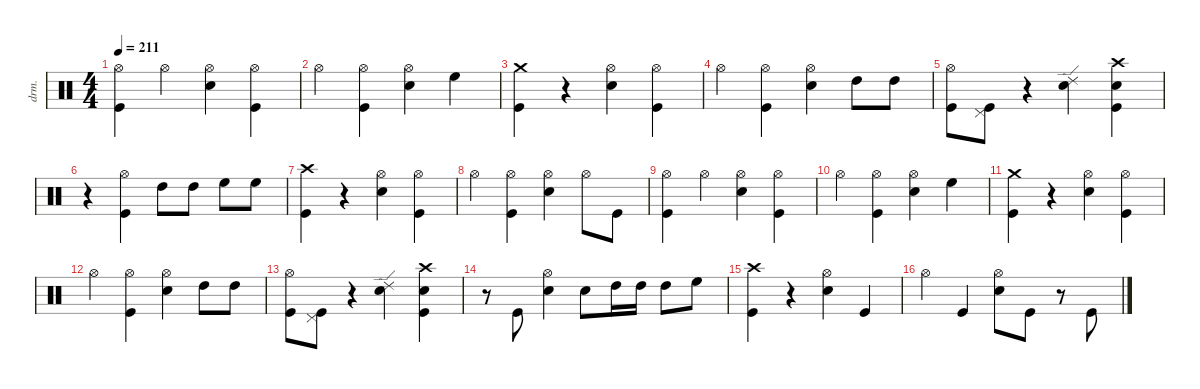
\defaultSystemsLayout 4
\hideDynamics
\bracketExtendMode nobrackets
\otherSystemsTrackNameOrientation horizontal
\track ("Drums" "drm.") {instrument percussion}
\staff {score}
\articulation defaults
\ts (4 4)
\tempo 211
\clef neutral
\ks c
("Kick (hit)" "Hi-Hat (open)"{acc #}).4{dy fff beam Down} "Hi-Hat (open)"{acc #}.4{dy mf beam Down} ("Snare (hit) 2" "Hi-Hat (open)"{acc #}).4{dy ff beam Down} ("Kick (hit)" "Hi-Hat (open)"{acc #}).4{beam Down} |
"Hi-Hat (open)"{acc #}.4{dy fff beam Down} ("Kick (hit)" "Hi-Hat (open)"{acc #}).4{dy ff beam Down} ("Snare (hit) 2" "Hi-Hat (open)"{acc #}).4{beam Down} "High Floor Tom (hit)".4{beam Down} |
("Kick (hit)" "Crash medium (hit)").4{dy fff beam Down} r.4{beam Down} ("Snare (hit) 2" "Hi-Hat (open)"{acc #}).4{dy ff beam Down} ("Kick (hit)" "Hi-Hat (open)"{acc #}).4{beam Down} |
"Hi-Hat (open)"{acc #}.4{dy fff beam Down} ("Kick (hit)" "Hi-Hat (open)"{acc #}).4{dy ff beam Down} ("Snare (hit) 2" "Hi-Hat (open)"{acc #}).4{beam Down} "High Tom (hit)".8{beam Down} "High Tom (hit)".8{dy mf beam Down} |
("Kick (hit)" "Hi-Hat (open)"{acc #}).8{dy ff beam Down} ("Kick (hit)" "Pedal Hi-Hat (hit)"{acc #}).8{dy fff beam Down} r.4{beam Down} ("Snare (hit) 2" "Ride (edge) 2").4{dy f beam Down} ("Kick (hit)" "Snare (hit) 2" "Crash high (hit)"{acc #}).4{dy ff beam Down} |
r.4{beam Down} ("Kick (hit)" "Hi-Hat (open)"{acc #}).4{dy fff beam Down} "High Tom (hit)".8{dy ff beam Down} "High Tom (hit)".8{dy mf beam Down} "High Floor Tom (hit)".8{dy f beam Down} "High Floor Tom (hit)".8{dy mf beam Down} |
("Kick (hit)" "Crash high (hit)"{acc #}).4{dy fff beam Down} r.4{beam Down} ("Snare (hit) 2" "Hi-Hat (open)"{acc #}).4{dy ff beam Down} ("Kick (hit)" "Hi-Hat (open)"{acc #}).4{beam Down} |
"Hi-Hat (open)"{acc #}.4{dy fff beam Down} ("Kick (hit)" "Hi-Hat (open)"{acc #}).4{dy ff beam Down} ("Snare (hit) 2" "Hi-Hat (open)"{acc #}).4{beam Down} "Hi-Hat (open)"{acc #}.8{dy mf beam Down} "Kick (hit)".8{beam Down} |
("Kick (hit)" "Hi-Hat (open)"{acc #}).4{dy fff beam Down} "Hi-Hat (open)"{acc #}.4{dy mf beam Down} ("Snare (hit) 2" "Hi-Hat (open)"{acc #}).4{dy ff beam Down} ("Kick (hit)" "Hi-Hat (open)"{acc #}).4{beam Down} |
"Hi-Hat (open)"{acc #}.4{dy fff beam Down} ("Kick (hit)" "Hi-Hat (open)"{acc #}).4{dy ff beam Down} ("Snare (hit) 2" "Hi-Hat (open)"{acc #}).4{beam Down} "High Floor Tom (hit)".4{beam Down} |
("Kick (hit)" "Crash medium (hit)").4{dy fff beam Down} r.4{beam Down} ("Snare (hit) 2" "Hi-Hat (open)"{acc #}).4{dy ff beam Down} ("Kick (hit)" "Hi-Hat (open)"{acc #}).4{beam Down} |
"Hi-Hat (open)"{acc #}.4{dy fff beam Down} ("Kick (hit)" "Hi-Hat (open)"{acc #}).4{dy ff beam Down} ("Snare (hit) 2" "Hi-Hat (open)"{acc #}).4{beam Down} "High Tom (hit)".8{beam Down} "High Tom (hit)".8{dy mf beam Down} |
("Kick (hit)" "Hi-Hat (open)"{acc #}).8{dy ff beam Down} ("Kick (hit)" "Pedal Hi-Hat (hit)"{acc #}).8{dy fff beam Down} r.4{beam Down} ("Snare (hit) 2" "Ride (edge) 2").4{dy f beam Down} ("Kick (hit)" "Snare (hit) 2" "Crash high (hit)"{acc #}).4{dy ff beam Down} |
r.8{beam Down} "Kick (hit)".8{dy mf beam Up} ("Snare (hit) 2" "Hi-Hat (open)"{acc #}).4{dy fff beam Down} "Snare (hit) 2".8{beam Down} "High Tom (hit)".16{dy ff beam Down} "High Tom (hit)".16{dy pp beam Down} "High Tom (hit)".8{dy f beam Down} "High Floor Tom (hit)".8{dy mp beam Down} |
("Kick (hit)" "Crash high (hit)"{acc #}).4{dy ff beam Down} r.4{beam Down} ("Snare (hit) 2" "Hi-Hat (open)"{acc #}).4{beam Down} "Kick (hit)".4{beam Up} |
"Hi-Hat (open)"{acc #}.4{beam Down} "Kick (hit)".4{beam Up} ("Snare (hit) 2" "Hi-Hat (open)"{acc #}).8{beam Down} "Kick (hit)".8{beam Down} r.8{beam Down} "Kick (hit)".8{dy mf beam Up}
